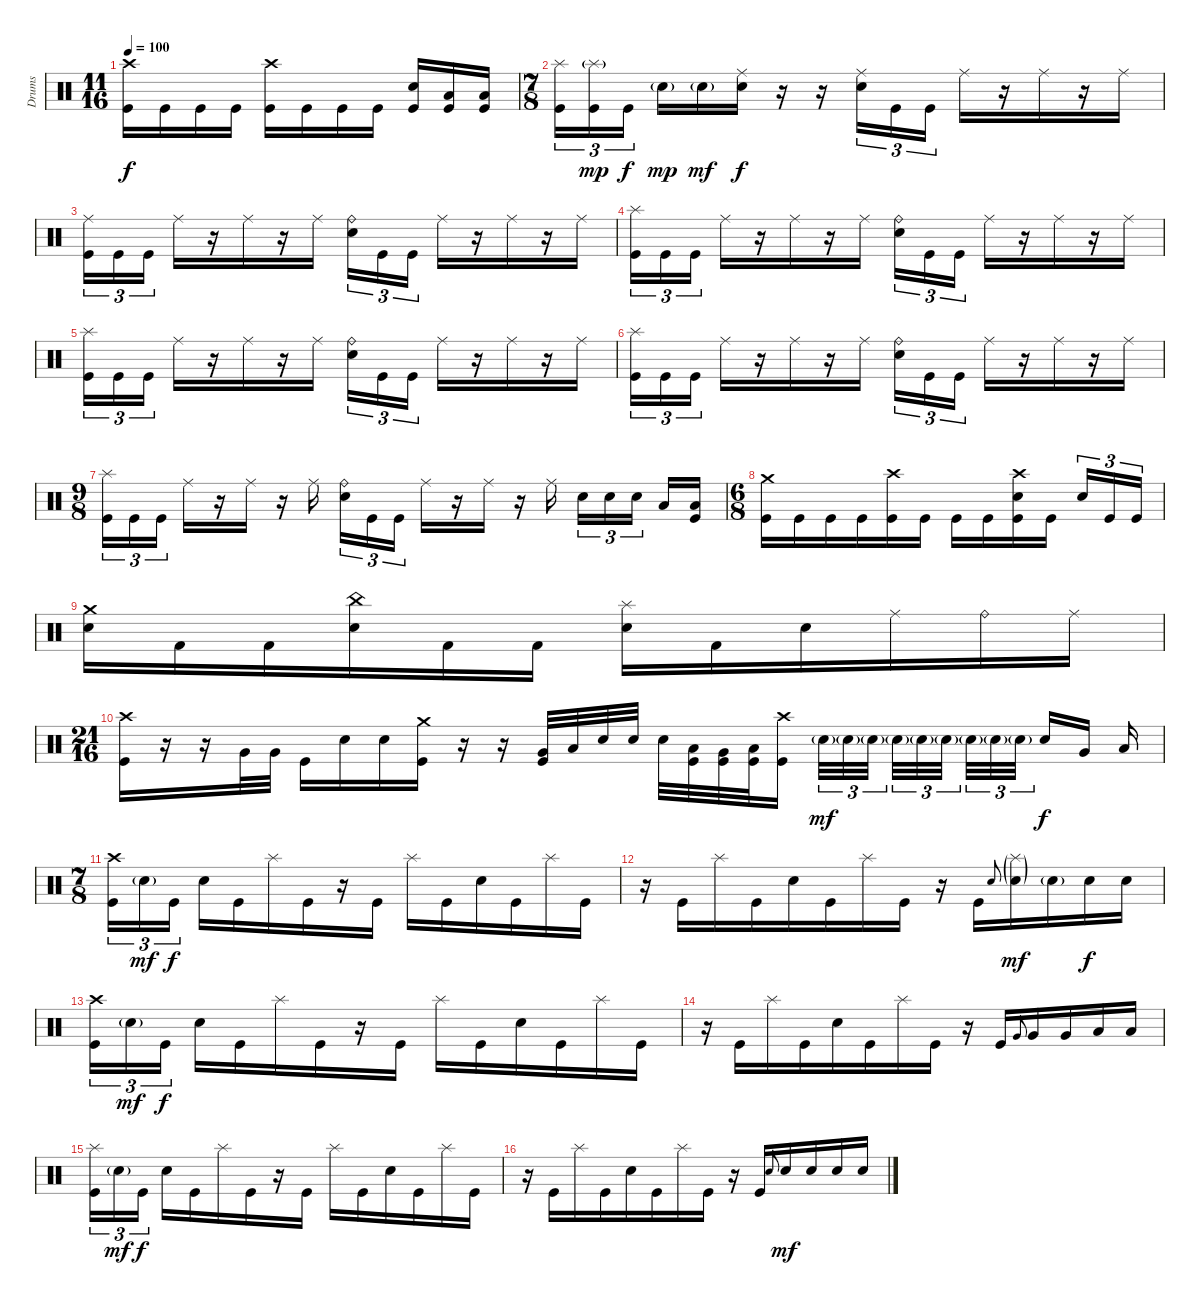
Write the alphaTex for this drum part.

\track ("Drums" "Drums") {instrument percussion}
\staff {score}
\articulation defaults
\ts (11 16)
\tempo 100
\clef neutral
\ks c
("Crash high (hit)" "Kick (hit)").16{dy f} "Kick (hit)".16 "Kick (hit)".16 "Kick (hit)".16 ("Crash high (hit)" "Kick (hit)").16 "Kick (hit)".16 "Kick (hit)".16 "Kick (hit)".16 ("Electric Snare (hit)" "Kick (hit)").16 ("Low Tom (hit)" "Kick (hit)").16 ("Low Floor Tom (hit)" "Kick (hit)").16 |
\ts (7 8)
("Splash (hit)" "Kick (hit)").16{tu (3 2)} ("Splash (hit)"{g} "Kick (hit)").16{tu (3 2) dy mp} "Kick (hit)".16{tu (3 2) dy f} "Electric Snare (hit)"{g}.16{dy mp} "Electric Snare (hit)"{g}.16{dy mf} ("Ride (middle)" "Electric Snare (hit)").16{dy f} r.16 r.16 ("Ride (middle)" "Electric Snare (hit)").16{tu (3 2)} "Kick (hit)".16{tu (3 2)} "Kick (hit)".16{tu (3 2)} "Ride (middle)".16 r.16 "Ride (middle)".16 r.16 "Ride (middle)".16 |
("Ride (middle)" "Kick (hit)").16{tu (3 2)} "Kick (hit)".16{tu (3 2)} "Kick (hit)".16{tu (3 2)} "Ride (middle)".16 r.16 "Ride (middle)".16 r.16 "Ride (middle)".16{beam splitsecondary} ("Ride (bell)" "Electric Snare (hit)").16{tu (3 2)} "Kick (hit)".16{tu (3 2)} "Kick (hit)".16{tu (3 2)} "Ride (middle)".16 r.16 "Ride (middle)".16 r.16 "Ride (middle)".16 |
("Splash (hit)" "Kick (hit)").16{tu (3 2)} "Kick (hit)".16{tu (3 2)} "Kick (hit)".16{tu (3 2)} "Ride (middle)".16 r.16 "Ride (middle)".16 r.16 "Ride (middle)".16{beam splitsecondary} ("Ride (bell)" "Electric Snare (hit)").16{tu (3 2)} "Kick (hit)".16{tu (3 2)} "Kick (hit)".16{tu (3 2)} "Ride (middle)".16 r.16 "Ride (middle)".16 r.16 "Ride (middle)".16 |
("Splash (hit)" "Kick (hit)").16{tu (3 2)} "Kick (hit)".16{tu (3 2)} "Kick (hit)".16{tu (3 2)} "Ride (middle)".16 r.16 "Ride (middle)".16 r.16 "Ride (middle)".16{beam splitsecondary} ("Ride (bell)" "Electric Snare (hit)").16{tu (3 2)} "Kick (hit)".16{tu (3 2)} "Kick (hit)".16{tu (3 2)} "Ride (middle)".16 r.16 "Ride (middle)".16 r.16 "Ride (middle)".16 |
("Splash (hit)" "Kick (hit)").16{tu (3 2)} "Kick (hit)".16{tu (3 2)} "Kick (hit)".16{tu (3 2)} "Ride (middle)".16 r.16 "Ride (middle)".16 r.16 "Ride (middle)".16{beam splitsecondary} ("Ride (bell)" "Electric Snare (hit)").16{tu (3 2)} "Kick (hit)".16{tu (3 2)} "Kick (hit)".16{tu (3 2)} "Ride (middle)".16 r.16 "Ride (middle)".16 r.16 "Ride (middle)".16 |
\ts (9 8)
("Splash (hit)" "Kick (hit)").16{tu (3 2)} "Kick (hit)".16{tu (3 2)} "Kick (hit)".16{tu (3 2) beam splitsecondary} "Ride (middle)".16 r.16 "Ride (middle)".16 r.16 "Ride (middle)".16{beam splitsecondary} ("Ride (bell)" "Electric Snare (hit)").16{tu (3 2)} "Kick (hit)".16{tu (3 2)} "Kick (hit)".16{tu (3 2) beam splitsecondary} "Ride (middle)".16 r.16 "Ride (middle)".16 r.16 "Ride (middle)".16{beam splitsecondary} "Electric Snare (hit)".16{tu (3 2)} "Electric Snare (hit)".16{tu (3 2)} "Electric Snare (hit)".16{tu (3 2) beam splitsecondary} "Low Tom (hit)".16 ("Low Floor Tom (hit)" "Kick (hit)").16 |
\ts (6 8)
("Crash medium (hit)" "Kick (hit)").16 "Kick (hit)".16 "Kick (hit)".16 "Kick (hit)".16 ("Crash high (hit)" "Kick (hit)").16 "Kick (hit)".16 "Kick (hit)".16 "Kick (hit)".16 ("Crash high (hit)" "Electric Snare (hit)" "Kick (hit)").16 "Kick (hit)".16{beam splitsecondary} "Electric Snare (hit)".16{tu (3 2)} "Kick (hit)".16{tu (3 2)} "Kick (hit)".16{tu (3 2)} |
("Crash medium (hit)" "Electric Snare (hit)").16 "Kick (hit) 2".16 "Kick (hit) 2".16 ("China (hit)" "Electric Snare (hit)").16 "Kick (hit) 2".16 "Kick (hit) 2".16 ("Splash (hit)" "Electric Snare (hit)").16 "Kick (hit) 2".16 "Electric Snare (hit)".16 "Ride (middle)".16 "Ride (bell)".16 "Ride (middle)".16 |
\ts (21 16)
("Crash high (hit)" "Kick (hit)").16 r.16 r.16 "Very Low Tom (hit)".32 "Very Low Tom (hit)".32 "Kick (hit)".16 "Electric Snare (hit)".16 "Electric Snare (hit)".16 ("Crash medium (hit)" "Kick (hit)").16 r.16 r.16 ("Very Low Tom (hit)" "Kick (hit)").32 "Low Tom (hit)".32 "Electric Snare (hit)".32 "Electric Snare (hit)".32 "Electric Snare (hit)".32 ("Low Tom (hit)" "Kick (hit)").32 ("Very Low Tom (hit)" "Kick (hit)").32 ("Low Floor Tom (hit)" "Kick (hit)").32 ("Crash high (hit)" "Kick (hit)").16 "Electric Snare (hit)"{g}.32{tu (3 2) dy mf} "Electric Snare (hit)"{g}.32{tu (3 2)} "Electric Snare (hit)"{g}.32{tu (3 2) beam splitsecondary} "Electric Snare (hit)"{g}.32{tu (3 2)} "Electric Snare (hit)"{g}.32{tu (3 2)} "Electric Snare (hit)"{g}.32{tu (3 2) beam splitsecondary} "Electric Snare (hit)"{g}.32{tu (3 2)} "Electric Snare (hit)"{g}.32{tu (3 2)} "Electric Snare (hit)"{g}.32{tu (3 2)} "Electric Snare (hit)".16{dy f} "Very Low Tom (hit)".16 "Low Floor Tom (hit)".16 |
\ts (7 8)
("Crash high (hit)" "Kick (hit)").16{tu (3 2)} "Electric Snare (hit)"{g}.16{tu (3 2) dy mf} "Kick (hit)".16{tu (3 2) dy f} "Electric Snare (hit)".16 "Kick (hit)".16 "Splash (hit)".16 "Kick (hit)".16 r.16 "Kick (hit)".16 "Splash (hit)".16 "Kick (hit)".16 "Electric Snare (hit)".16 "Kick (hit)".16 "Splash (hit)".16 "Kick (hit)".16 |
r.16 "Kick (hit)".16 "Splash (hit)".16 "Kick (hit)".16 "Electric Snare (hit)".16 "Kick (hit)".16 "Splash (hit)".16 "Kick (hit)".16 r.16 "Kick (hit)".16 "Electric Snare (hit)".8{gr onbeat} ("Splash (hit)"{g} "Electric Snare (hit)"{g}).16{dy mf} "Electric Snare (hit)"{g}.16 "Electric Snare (hit)".16{dy f} "Electric Snare (hit)".16 |
("Crash high (hit)" "Kick (hit)").16{tu (3 2)} "Electric Snare (hit)"{g}.16{tu (3 2) dy mf} "Kick (hit)".16{tu (3 2) dy f} "Electric Snare (hit)".16 "Kick (hit)".16 "Splash (hit)".16 "Kick (hit)".16 r.16 "Kick (hit)".16 "Splash (hit)".16 "Kick (hit)".16 "Electric Snare (hit)".16 "Kick (hit)".16 "Splash (hit)".16 "Kick (hit)".16 |
r.16 "Kick (hit)".16 "Splash (hit)".16 "Kick (hit)".16 "Electric Snare (hit)".16 "Kick (hit)".16 "Splash (hit)".16 "Kick (hit)".16 r.16 "Kick (hit)".16 "Very Low Tom (hit)".8{gr onbeat} "Very Low Tom (hit)".16 "Very Low Tom (hit)".16 "Low Floor Tom (hit)".16 "Low Floor Tom (hit)".16 |
("Splash (hit)" "Kick (hit)").16{tu (3 2)} "Electric Snare (hit)"{g}.16{tu (3 2) dy mf} "Kick (hit)".16{tu (3 2) dy f} "Electric Snare (hit)".16 "Kick (hit)".16 "Splash (hit)".16 "Kick (hit)".16 r.16 "Kick (hit)".16 "Splash (hit)".16 "Kick (hit)".16 "Electric Snare (hit)".16 "Kick (hit)".16 "Splash (hit)".16 "Kick (hit)".16 |
r.16 "Kick (hit)".16 "Splash (hit)".16 "Kick (hit)".16 "Electric Snare (hit)".16 "Kick (hit)".16 "Splash (hit)".16 "Kick (hit)".16 r.16 "Kick (hit)".16 "Electric Snare (hit)".8{gr onbeat} "Electric Snare (hit)".16{dy mf} "Electric Snare (hit)".16 "Electric Snare (hit)".16 "Electric Snare (hit)".16
